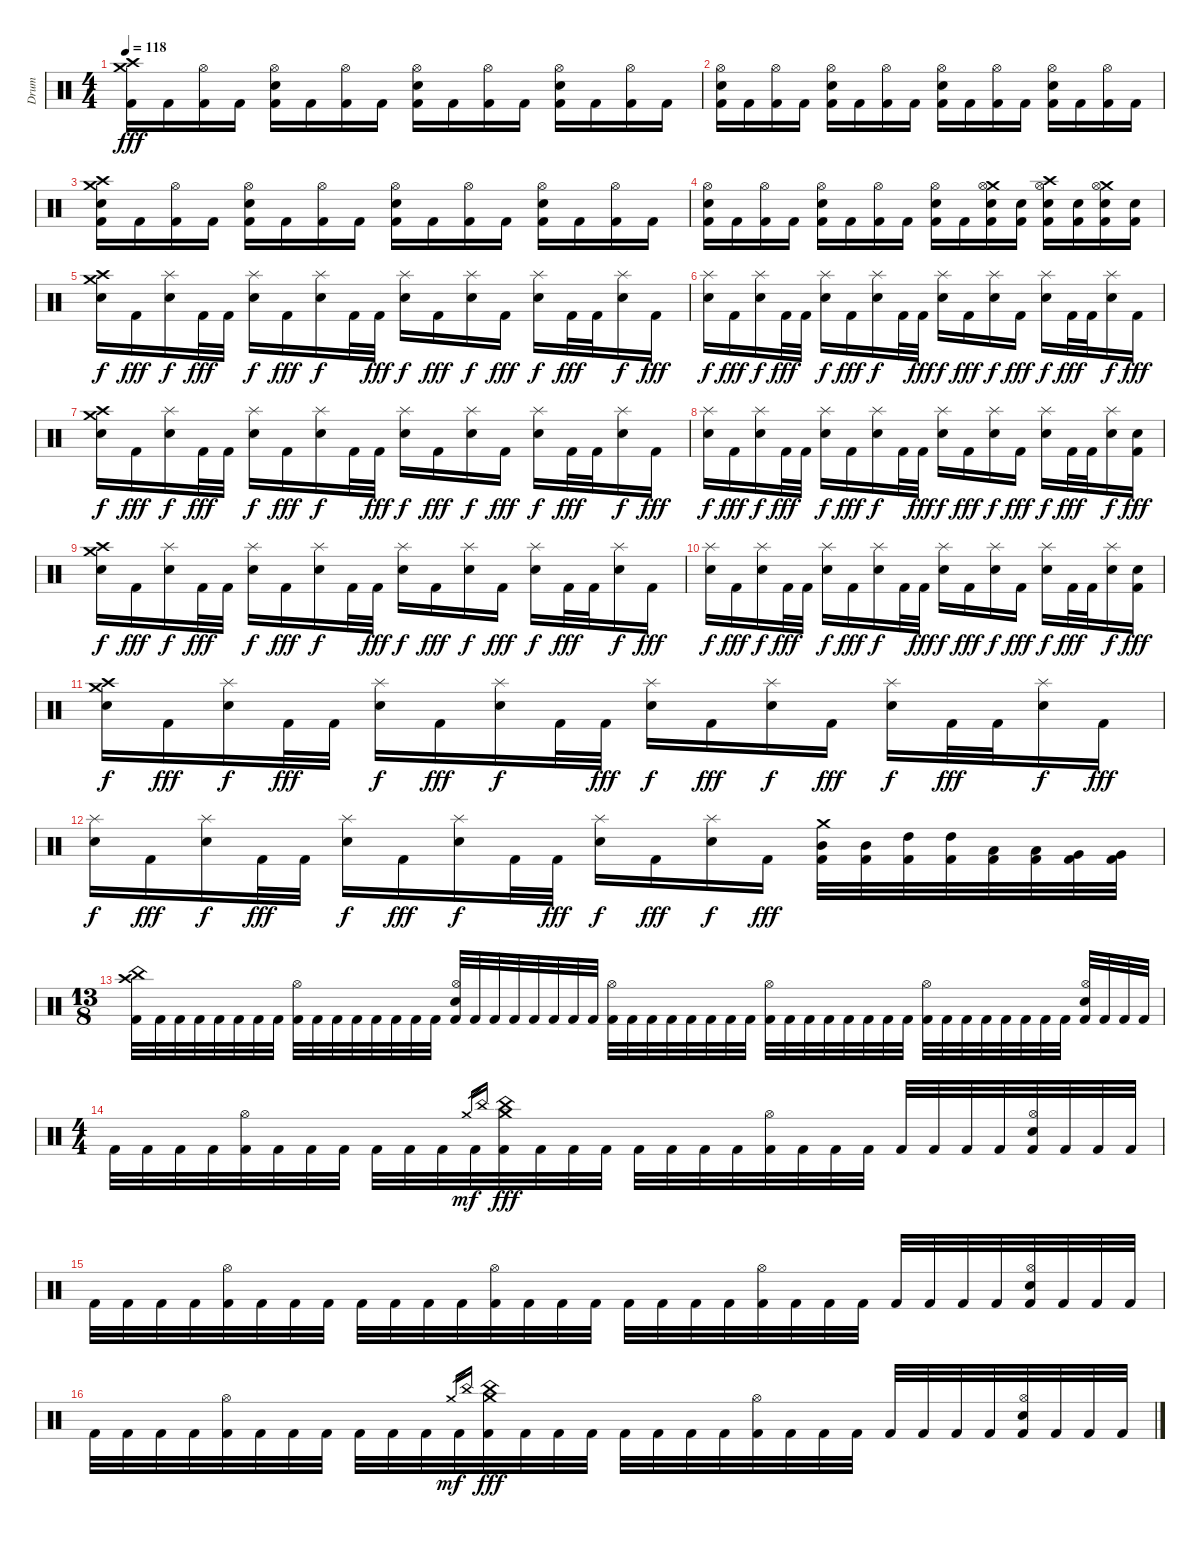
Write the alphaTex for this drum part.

\track ("Drum" "Drum") {instrument percussion}
\staff {score}
\articulation defaults
\ts (4 4)
\tempo 118
\clef neutral
\ks c
("Crash medium (hit)" "Crash high (hit)" "Kick (hit) 2").16{dy fff} "Kick (hit) 2".16 ("Hi-Hat (open)" "Kick (hit) 2").16 "Kick (hit) 2".16 ("Hi-Hat (open)" "Electric Snare (hit)" "Kick (hit) 2").16 "Kick (hit) 2".16 ("Hi-Hat (open)" "Kick (hit) 2").16 "Kick (hit) 2".16 ("Hi-Hat (open)" "Electric Snare (hit)" "Kick (hit) 2").16 "Kick (hit) 2".16 ("Hi-Hat (open)" "Kick (hit) 2").16 "Kick (hit) 2".16 ("Hi-Hat (open)" "Electric Snare (hit)" "Kick (hit) 2").16 "Kick (hit) 2".16 ("Hi-Hat (open)" "Kick (hit) 2").16 "Kick (hit) 2".16 |
("Hi-Hat (open)" "Electric Snare (hit)" "Kick (hit) 2").16 "Kick (hit) 2".16 ("Hi-Hat (open)" "Kick (hit) 2").16 "Kick (hit) 2".16 ("Hi-Hat (open)" "Electric Snare (hit)" "Kick (hit) 2").16 "Kick (hit) 2".16 ("Hi-Hat (open)" "Kick (hit) 2").16 "Kick (hit) 2".16 ("Hi-Hat (open)" "Electric Snare (hit)" "Kick (hit) 2").16 "Kick (hit) 2".16 ("Hi-Hat (open)" "Kick (hit) 2").16 "Kick (hit) 2".16 ("Hi-Hat (open)" "Electric Snare (hit)" "Kick (hit) 2").16 "Kick (hit) 2".16 ("Hi-Hat (open)" "Kick (hit) 2").16 "Kick (hit) 2".16 |
("Crash medium (hit)" "Crash high (hit)" "Electric Snare (hit)" "Kick (hit) 2").16 "Kick (hit) 2".16 ("Hi-Hat (open)" "Kick (hit) 2").16 "Kick (hit) 2".16 ("Hi-Hat (open)" "Electric Snare (hit)" "Kick (hit) 2").16 "Kick (hit) 2".16 ("Hi-Hat (open)" "Kick (hit) 2").16 "Kick (hit) 2".16 ("Hi-Hat (open)" "Electric Snare (hit)" "Kick (hit) 2").16 "Kick (hit) 2".16 ("Hi-Hat (open)" "Kick (hit) 2").16 "Kick (hit) 2".16 ("Hi-Hat (open)" "Electric Snare (hit)" "Kick (hit) 2").16 "Kick (hit) 2".16 ("Hi-Hat (open)" "Kick (hit) 2").16 "Kick (hit) 2".16 |
("Hi-Hat (open)" "Electric Snare (hit)" "Kick (hit) 2").16 "Kick (hit) 2".16 ("Hi-Hat (open)" "Kick (hit) 2").16 "Kick (hit) 2".16 ("Hi-Hat (open)" "Electric Snare (hit)" "Kick (hit) 2").16 "Kick (hit) 2".16 ("Hi-Hat (open)" "Kick (hit) 2").16 "Kick (hit) 2".16 ("Hi-Hat (open)" "Electric Snare (hit)" "Kick (hit) 2").16 "Kick (hit) 2".16 ("Crash medium (hit)" "Hi-Hat (open)" "Electric Snare (hit)" "Kick (hit) 2").16 ("Electric Snare (hit)" "Kick (hit) 2").16 ("Crash high (hit)" "Hi-Hat (open)" "Electric Snare (hit)" "Kick (hit) 2").16 ("Electric Snare (hit)" "Kick (hit) 2").16 ("Crash medium (hit)" "Hi-Hat (open)" "Electric Snare (hit)" "Kick (hit) 2").16 ("Electric Snare (hit)" "Kick (hit) 2").16 |
("Crash high (hit)" "Crash medium (hit)" "Electric Snare (hit)").16{dy f} "Kick (hit) 2".16{dy fff} ("Splash (hit)" "Electric Snare (hit)").16{dy f} "Kick (hit) 2".32{dy fff} "Kick (hit) 2".32 ("Splash (hit)" "Electric Snare (hit)").16{dy f} "Kick (hit) 2".16{dy fff} ("Splash (hit)" "Electric Snare (hit)").16{dy f} "Kick (hit) 2".32 "Kick (hit) 2".32{dy fff} ("Splash (hit)" "Electric Snare (hit)").16{dy f} "Kick (hit) 2".16{dy fff} ("Splash (hit)" "Electric Snare (hit)").16{dy f} "Kick (hit) 2".16{dy fff} ("Splash (hit)" "Electric Snare (hit)").16{dy f} "Kick (hit) 2".32{dy fff} "Kick (hit) 2".32 ("Splash (hit)" "Electric Snare (hit)").16{dy f} "Kick (hit) 2".16{dy fff} |
("Splash (hit)" "Electric Snare (hit)").16{dy f} "Kick (hit) 2".16{dy fff} ("Splash (hit)" "Electric Snare (hit)").16{dy f} "Kick (hit) 2".32{dy fff} "Kick (hit) 2".32 ("Splash (hit)" "Electric Snare (hit)").16{dy f} "Kick (hit) 2".16{dy fff} ("Splash (hit)" "Electric Snare (hit)").16{dy f} "Kick (hit) 2".32 "Kick (hit) 2".32{dy fff} ("Splash (hit)" "Electric Snare (hit)").16{dy f} "Kick (hit) 2".16{dy fff} ("Splash (hit)" "Electric Snare (hit)").16{dy f} "Kick (hit) 2".16{dy fff} ("Splash (hit)" "Electric Snare (hit)").16{dy f} "Kick (hit) 2".32{dy fff} "Kick (hit) 2".32 ("Splash (hit)" "Electric Snare (hit)").16{dy f} "Kick (hit) 2".16{dy fff} |
("Crash high (hit)" "Crash medium (hit)" "Electric Snare (hit)").16{dy f} "Kick (hit) 2".16{dy fff} ("Splash (hit)" "Electric Snare (hit)").16{dy f} "Kick (hit) 2".32{dy fff} "Kick (hit) 2".32 ("Splash (hit)" "Electric Snare (hit)").16{dy f} "Kick (hit) 2".16{dy fff} ("Splash (hit)" "Electric Snare (hit)").16{dy f} "Kick (hit) 2".32 "Kick (hit) 2".32{dy fff} ("Splash (hit)" "Electric Snare (hit)").16{dy f} "Kick (hit) 2".16{dy fff} ("Splash (hit)" "Electric Snare (hit)").16{dy f} "Kick (hit) 2".16{dy fff} ("Splash (hit)" "Electric Snare (hit)").16{dy f} "Kick (hit) 2".32{dy fff} "Kick (hit) 2".32 ("Splash (hit)" "Electric Snare (hit)").16{dy f} "Kick (hit) 2".16{dy fff} |
("Splash (hit)" "Electric Snare (hit)").16{dy f} "Kick (hit) 2".16{dy fff} ("Splash (hit)" "Electric Snare (hit)").16{dy f} "Kick (hit) 2".32{dy fff} "Kick (hit) 2".32 ("Splash (hit)" "Electric Snare (hit)").16{dy f} "Kick (hit) 2".16{dy fff} ("Splash (hit)" "Electric Snare (hit)").16{dy f} "Kick (hit) 2".32 "Kick (hit) 2".32{dy fff} ("Splash (hit)" "Electric Snare (hit)").16{dy f} "Kick (hit) 2".16{dy fff} ("Splash (hit)" "Electric Snare (hit)").16{dy f} "Kick (hit) 2".16{dy fff} ("Splash (hit)" "Electric Snare (hit)").16{dy f} "Kick (hit) 2".32{dy fff} "Kick (hit) 2".32 ("Splash (hit)" "Electric Snare (hit)").16{dy f} ("Electric Snare (hit)" "Kick (hit) 2").16{dy fff} |
("Crash high (hit)" "Crash medium (hit)" "Electric Snare (hit)").16{dy f} "Kick (hit) 2".16{dy fff} ("Splash (hit)" "Electric Snare (hit)").16{dy f} "Kick (hit) 2".32{dy fff} "Kick (hit) 2".32 ("Splash (hit)" "Electric Snare (hit)").16{dy f} "Kick (hit) 2".16{dy fff} ("Splash (hit)" "Electric Snare (hit)").16{dy f} "Kick (hit) 2".32 "Kick (hit) 2".32{dy fff} ("Splash (hit)" "Electric Snare (hit)").16{dy f} "Kick (hit) 2".16{dy fff} ("Splash (hit)" "Electric Snare (hit)").16{dy f} "Kick (hit) 2".16{dy fff} ("Splash (hit)" "Electric Snare (hit)").16{dy f} "Kick (hit) 2".32{dy fff} "Kick (hit) 2".32 ("Splash (hit)" "Electric Snare (hit)").16{dy f} "Kick (hit) 2".16{dy fff} |
("Splash (hit)" "Electric Snare (hit)").16{dy f} "Kick (hit) 2".16{dy fff} ("Splash (hit)" "Electric Snare (hit)").16{dy f} "Kick (hit) 2".32{dy fff} "Kick (hit) 2".32 ("Splash (hit)" "Electric Snare (hit)").16{dy f} "Kick (hit) 2".16{dy fff} ("Splash (hit)" "Electric Snare (hit)").16{dy f} "Kick (hit) 2".32 "Kick (hit) 2".32{dy fff} ("Splash (hit)" "Electric Snare (hit)").16{dy f} "Kick (hit) 2".16{dy fff} ("Splash (hit)" "Electric Snare (hit)").16{dy f} "Kick (hit) 2".16{dy fff} ("Splash (hit)" "Electric Snare (hit)").16{dy f} "Kick (hit) 2".32{dy fff} "Kick (hit) 2".32 ("Splash (hit)" "Electric Snare (hit)").16{dy f} ("Electric Snare (hit)" "Kick (hit) 2").16{dy fff} |
("Crash high (hit)" "Crash medium (hit)" "Electric Snare (hit)").16{dy f} "Kick (hit) 2".16{dy fff} ("Splash (hit)" "Electric Snare (hit)").16{dy f} "Kick (hit) 2".32{dy fff} "Kick (hit) 2".32 ("Splash (hit)" "Electric Snare (hit)").16{dy f} "Kick (hit) 2".16{dy fff} ("Splash (hit)" "Electric Snare (hit)").16{dy f} "Kick (hit) 2".32 "Kick (hit) 2".32{dy fff} ("Splash (hit)" "Electric Snare (hit)").16{dy f} "Kick (hit) 2".16{dy fff} ("Splash (hit)" "Electric Snare (hit)").16{dy f} "Kick (hit) 2".16{dy fff} ("Splash (hit)" "Electric Snare (hit)").16{dy f} "Kick (hit) 2".32{dy fff} "Kick (hit) 2".32 ("Splash (hit)" "Electric Snare (hit)").16{dy f} "Kick (hit) 2".16{dy fff} |
("Splash (hit)" "Electric Snare (hit)").16{dy f} "Kick (hit) 2".16{dy fff} ("Splash (hit)" "Electric Snare (hit)").16{dy f} "Kick (hit) 2".32{dy fff} "Kick (hit) 2".32 ("Splash (hit)" "Electric Snare (hit)").16{dy f} "Kick (hit) 2".16{dy fff} ("Splash (hit)" "Electric Snare (hit)").16{dy f} "Kick (hit) 2".32 "Kick (hit) 2".32{dy fff} ("Splash (hit)" "Electric Snare (hit)").16{dy f} "Kick (hit) 2".16{dy fff} ("Splash (hit)" "Electric Snare (hit)").16{dy f} "Kick (hit) 2".16{dy fff} ("Crash medium (hit)" "Mid Tom (hit)" "Kick (hit) 2").32 ("Mid Tom (hit)" "Kick (hit) 2").32 ("High Tom (hit)" "Kick (hit) 2").32 ("High Tom (hit)" "Kick (hit) 2").32 ("Low Tom (hit)" "Kick (hit) 2").32 ("Low Tom (hit)" "Kick (hit) 2").32 ("Very Low Tom (hit)" "Kick (hit) 2").32 ("Very Low Tom (hit)" "Kick (hit) 2").32 |
\ts (13 8)
("Crash high (hit)" "China (hit)" "Kick (hit) 2").32 "Kick (hit) 2".32 "Kick (hit) 2".32 "Kick (hit) 2".32 "Kick (hit) 2".32 "Kick (hit) 2".32 "Kick (hit) 2".32 "Kick (hit) 2".32 ("Hi-Hat (open)" "Kick (hit) 2").32 "Kick (hit) 2".32 "Kick (hit) 2".32 "Kick (hit) 2".32 "Kick (hit) 2".32 "Kick (hit) 2".32 "Kick (hit) 2".32 "Kick (hit) 2".32 ("Hi-Hat (open)" "Electric Snare (hit)" "Kick (hit) 2").32 "Kick (hit) 2".32 "Kick (hit) 2".32 "Kick (hit) 2".32 "Kick (hit) 2".32 "Kick (hit) 2".32 "Kick (hit) 2".32 "Kick (hit) 2".32 ("Hi-Hat (open)" "Kick (hit) 2").32 "Kick (hit) 2".32 "Kick (hit) 2".32 "Kick (hit) 2".32 "Kick (hit) 2".32 "Kick (hit) 2".32 "Kick (hit) 2".32 "Kick (hit) 2".32 ("Hi-Hat (open)" "Kick (hit) 2").32 "Kick (hit) 2".32 "Kick (hit) 2".32 "Kick (hit) 2".32 "Kick (hit) 2".32 "Kick (hit) 2".32 "Kick (hit) 2".32 "Kick (hit) 2".32 ("Hi-Hat (open)" "Kick (hit) 2").32 "Kick (hit) 2".32 "Kick (hit) 2".32 "Kick (hit) 2".32 "Kick (hit) 2".32 "Kick (hit) 2".32 "Kick (hit) 2".32 "Kick (hit) 2".32 ("Hi-Hat (open)" "Electric Snare (hit)" "Kick (hit) 2").32 "Kick (hit) 2".32 "Kick (hit) 2".32 "Kick (hit) 2".32 |
\ts (4 4)
"Kick (hit) 2".32 "Kick (hit) 2".32 "Kick (hit) 2".32 "Kick (hit) 2".32 ("Hi-Hat (open)" "Kick (hit) 2").32 "Kick (hit) 2".32 "Kick (hit) 2".32 "Kick (hit) 2".32 "Kick (hit) 2".32 "Kick (hit) 2".32 "Kick (hit) 2".32 "Kick (hit) 2".32 "Crash medium (hit)".16{gr dy mf} "China (hit)".16{gr} ("Crash medium (hit)" "China (hit)" "Kick (hit) 2").32{dy fff} "Kick (hit) 2".32 "Kick (hit) 2".32 "Kick (hit) 2".32 "Kick (hit) 2".32 "Kick (hit) 2".32 "Kick (hit) 2".32 "Kick (hit) 2".32 ("Hi-Hat (open)" "Kick (hit) 2").32 "Kick (hit) 2".32 "Kick (hit) 2".32 "Kick (hit) 2".32 "Kick (hit) 2".32 "Kick (hit) 2".32 "Kick (hit) 2".32 "Kick (hit) 2".32 ("Hi-Hat (open)" "Electric Snare (hit)" "Kick (hit) 2").32 "Kick (hit) 2".32 "Kick (hit) 2".32 "Kick (hit) 2".32 |
"Kick (hit) 2".32 "Kick (hit) 2".32 "Kick (hit) 2".32 "Kick (hit) 2".32 ("Hi-Hat (open)" "Kick (hit) 2").32 "Kick (hit) 2".32 "Kick (hit) 2".32 "Kick (hit) 2".32 "Kick (hit) 2".32 "Kick (hit) 2".32 "Kick (hit) 2".32 "Kick (hit) 2".32 ("Hi-Hat (open)" "Kick (hit) 2").32 "Kick (hit) 2".32 "Kick (hit) 2".32 "Kick (hit) 2".32 "Kick (hit) 2".32 "Kick (hit) 2".32 "Kick (hit) 2".32 "Kick (hit) 2".32 ("Hi-Hat (open)" "Kick (hit) 2").32 "Kick (hit) 2".32 "Kick (hit) 2".32 "Kick (hit) 2".32 "Kick (hit) 2".32 "Kick (hit) 2".32 "Kick (hit) 2".32 "Kick (hit) 2".32 ("Hi-Hat (open)" "Electric Snare (hit)" "Kick (hit) 2").32 "Kick (hit) 2".32 "Kick (hit) 2".32 "Kick (hit) 2".32 |
"Kick (hit) 2".32 "Kick (hit) 2".32 "Kick (hit) 2".32 "Kick (hit) 2".32 ("Hi-Hat (open)" "Kick (hit) 2").32 "Kick (hit) 2".32 "Kick (hit) 2".32 "Kick (hit) 2".32 "Kick (hit) 2".32 "Kick (hit) 2".32 "Kick (hit) 2".32 "Kick (hit) 2".32 "Crash medium (hit)".16{gr dy mf} "China (hit)".16{gr} ("Crash medium (hit)" "China (hit)" "Kick (hit) 2").32{dy fff} "Kick (hit) 2".32 "Kick (hit) 2".32 "Kick (hit) 2".32 "Kick (hit) 2".32 "Kick (hit) 2".32 "Kick (hit) 2".32 "Kick (hit) 2".32 ("Hi-Hat (open)" "Kick (hit) 2").32 "Kick (hit) 2".32 "Kick (hit) 2".32 "Kick (hit) 2".32 "Kick (hit) 2".32 "Kick (hit) 2".32 "Kick (hit) 2".32 "Kick (hit) 2".32 ("Hi-Hat (open)" "Electric Snare (hit)" "Kick (hit) 2").32 "Kick (hit) 2".32 "Kick (hit) 2".32 "Kick (hit) 2".32
